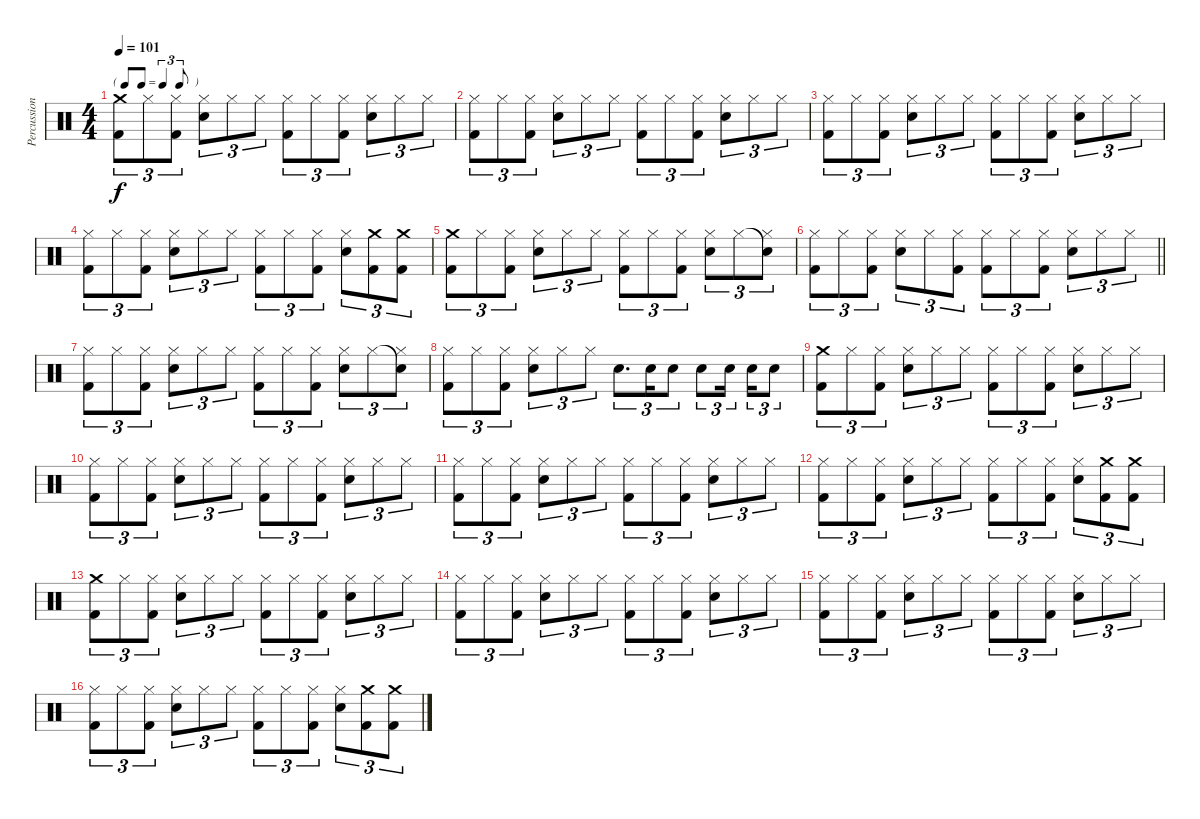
\track ("Percussion" "Percussion") {instrument percussion}
\staff {score}
\articulation defaults
\ts (4 4)
\tf triplet8th
\tempo 101
\clef neutral
\ks c
("Crash medium (hit)" "Kick (hit) 2").8{tu (3 2) dy f} "Hi-Hat (closed)".8{tu (3 2)} ("Hi-Hat (closed)" "Kick (hit) 2").8{tu (3 2)} ("Hi-Hat (closed)" "Electric Snare (hit)").8{tu (3 2)} "Hi-Hat (closed)".8{tu (3 2)} "Hi-Hat (closed)".8{tu (3 2)} ("Hi-Hat (closed)" "Kick (hit) 2").8{tu (3 2)} "Hi-Hat (closed)".8{tu (3 2)} ("Hi-Hat (closed)" "Kick (hit) 2").8{tu (3 2)} ("Hi-Hat (closed)" "Electric Snare (hit)").8{tu (3 2)} "Hi-Hat (closed)".8{tu (3 2)} "Hi-Hat (closed)".8{tu (3 2)} |
("Hi-Hat (closed)" "Kick (hit) 2").8{tu (3 2)} "Hi-Hat (closed)".8{tu (3 2)} ("Hi-Hat (closed)" "Kick (hit) 2").8{tu (3 2)} ("Hi-Hat (closed)" "Electric Snare (hit)").8{tu (3 2)} "Hi-Hat (closed)".8{tu (3 2)} "Hi-Hat (closed)".8{tu (3 2)} ("Hi-Hat (closed)" "Kick (hit) 2").8{tu (3 2)} "Hi-Hat (closed)".8{tu (3 2)} ("Hi-Hat (closed)" "Kick (hit) 2").8{tu (3 2)} ("Hi-Hat (closed)" "Electric Snare (hit)").8{tu (3 2)} "Hi-Hat (closed)".8{tu (3 2)} "Hi-Hat (closed)".8{tu (3 2)} |
("Hi-Hat (closed)" "Kick (hit) 2").8{tu (3 2)} "Hi-Hat (closed)".8{tu (3 2)} ("Hi-Hat (closed)" "Kick (hit) 2").8{tu (3 2)} ("Hi-Hat (closed)" "Electric Snare (hit)").8{tu (3 2)} "Hi-Hat (closed)".8{tu (3 2)} "Hi-Hat (closed)".8{tu (3 2)} ("Hi-Hat (closed)" "Kick (hit) 2").8{tu (3 2)} "Hi-Hat (closed)".8{tu (3 2)} ("Hi-Hat (closed)" "Kick (hit) 2").8{tu (3 2)} ("Hi-Hat (closed)" "Electric Snare (hit)").8{tu (3 2)} "Hi-Hat (closed)".8{tu (3 2)} "Hi-Hat (closed)".8{tu (3 2)} |
("Hi-Hat (closed)" "Kick (hit) 2").8{tu (3 2)} "Hi-Hat (closed)".8{tu (3 2)} ("Hi-Hat (closed)" "Kick (hit) 2").8{tu (3 2)} ("Hi-Hat (closed)" "Electric Snare (hit)").8{tu (3 2)} "Hi-Hat (closed)".8{tu (3 2)} "Hi-Hat (closed)".8{tu (3 2)} ("Hi-Hat (closed)" "Kick (hit) 2").8{tu (3 2)} "Hi-Hat (closed)".8{tu (3 2)} ("Hi-Hat (closed)" "Kick (hit) 2").8{tu (3 2)} ("Hi-Hat (closed)" "Electric Snare (hit)").8{tu (3 2)} ("Crash medium (hit)" "Kick (hit) 2").8{tu (3 2)} ("Crash medium (hit)" "Kick (hit) 2").8{tu (3 2)} |
("Crash medium (hit)" "Kick (hit) 2").8{tu (3 2)} "Hi-Hat (closed)".8{tu (3 2)} ("Hi-Hat (closed)" "Kick (hit) 2").8{tu (3 2)} ("Hi-Hat (closed)" "Electric Snare (hit)").8{tu (3 2)} "Hi-Hat (closed)".8{tu (3 2)} "Hi-Hat (closed)".8{tu (3 2)} ("Hi-Hat (closed)" "Kick (hit) 2").8{tu (3 2)} "Hi-Hat (closed)".8{tu (3 2)} ("Hi-Hat (closed)" "Kick (hit) 2").8{tu (3 2)} ("Hi-Hat (closed)" "Electric Snare (hit)").8{tu (3 2)} "Hi-Hat (closed)".8{tu (3 2)} ("Snare (hit)"{t} "Hi-Hat (closed)").8{tu (3 2)} |
\barLineRight lightlight
("Hi-Hat (closed)" "Kick (hit) 2").8{tu (3 2)} "Hi-Hat (closed)".8{tu (3 2)} ("Hi-Hat (closed)" "Kick (hit) 2").8{tu (3 2)} ("Hi-Hat (closed)" "Electric Snare (hit)").8{tu (3 2)} "Hi-Hat (closed)".8{tu (3 2)} ("Hi-Hat (closed)" "Kick (hit) 2").8{tu (3 2)} ("Hi-Hat (closed)" "Kick (hit) 2").8{tu (3 2)} "Hi-Hat (closed)".8{tu (3 2)} ("Hi-Hat (closed)" "Kick (hit) 2").8{tu (3 2)} ("Hi-Hat (closed)" "Electric Snare (hit)").8{tu (3 2)} "Hi-Hat (closed)".8{tu (3 2)} "Hi-Hat (closed)".8{tu (3 2)} |
("Hi-Hat (closed)" "Kick (hit) 2").8{tu (3 2)} "Hi-Hat (closed)".8{tu (3 2)} ("Hi-Hat (closed)" "Kick (hit) 2").8{tu (3 2)} ("Hi-Hat (closed)" "Electric Snare (hit)").8{tu (3 2)} "Hi-Hat (closed)".8{tu (3 2)} "Hi-Hat (closed)".8{tu (3 2)} ("Hi-Hat (closed)" "Kick (hit) 2").8{tu (3 2)} "Hi-Hat (closed)".8{tu (3 2)} ("Hi-Hat (closed)" "Kick (hit) 2").8{tu (3 2)} ("Hi-Hat (closed)" "Electric Snare (hit)").8{tu (3 2)} "Hi-Hat (closed)".8{tu (3 2)} ("Snare (hit)"{t} "Hi-Hat (closed)").8{tu (3 2)} |
("Hi-Hat (closed)" "Kick (hit) 2").8{tu (3 2)} "Hi-Hat (closed)".8{tu (3 2)} ("Hi-Hat (closed)" "Kick (hit) 2").8{tu (3 2)} ("Hi-Hat (closed)" "Electric Snare (hit)").8{tu (3 2)} "Hi-Hat (closed)".8{tu (3 2)} "Hi-Hat (closed)".8{tu (3 2)} "Electric Snare (hit)".8{d tu (3 2)} "Electric Snare (hit)".16{tu (3 2)} "Electric Snare (hit)".8{tu (3 2)} "Electric Snare (hit)".8{tu (3 2)} "Electric Snare (hit)".16{tu (3 2) beam splitsecondary} "Electric Snare (hit)".16{tu (3 2)} "Electric Snare (hit)".8{tu (3 2)} |
("Crash medium (hit)" "Kick (hit) 2").8{tu (3 2)} "Hi-Hat (closed)".8{tu (3 2)} ("Hi-Hat (closed)" "Kick (hit) 2").8{tu (3 2)} ("Hi-Hat (closed)" "Electric Snare (hit)").8{tu (3 2)} "Hi-Hat (closed)".8{tu (3 2)} "Hi-Hat (closed)".8{tu (3 2)} ("Hi-Hat (closed)" "Kick (hit) 2").8{tu (3 2)} "Hi-Hat (closed)".8{tu (3 2)} ("Hi-Hat (closed)" "Kick (hit) 2").8{tu (3 2)} ("Hi-Hat (closed)" "Electric Snare (hit)").8{tu (3 2)} "Hi-Hat (closed)".8{tu (3 2)} "Hi-Hat (closed)".8{tu (3 2)} |
("Hi-Hat (closed)" "Kick (hit) 2").8{tu (3 2)} "Hi-Hat (closed)".8{tu (3 2)} ("Hi-Hat (closed)" "Kick (hit) 2").8{tu (3 2)} ("Hi-Hat (closed)" "Electric Snare (hit)").8{tu (3 2)} "Hi-Hat (closed)".8{tu (3 2)} "Hi-Hat (closed)".8{tu (3 2)} ("Hi-Hat (closed)" "Kick (hit) 2").8{tu (3 2)} "Hi-Hat (closed)".8{tu (3 2)} ("Hi-Hat (closed)" "Kick (hit) 2").8{tu (3 2)} ("Hi-Hat (closed)" "Electric Snare (hit)").8{tu (3 2)} "Hi-Hat (closed)".8{tu (3 2)} "Hi-Hat (closed)".8{tu (3 2)} |
("Hi-Hat (closed)" "Kick (hit) 2").8{tu (3 2)} "Hi-Hat (closed)".8{tu (3 2)} ("Hi-Hat (closed)" "Kick (hit) 2").8{tu (3 2)} ("Hi-Hat (closed)" "Electric Snare (hit)").8{tu (3 2)} "Hi-Hat (closed)".8{tu (3 2)} "Hi-Hat (closed)".8{tu (3 2)} ("Hi-Hat (closed)" "Kick (hit) 2").8{tu (3 2)} "Hi-Hat (closed)".8{tu (3 2)} ("Hi-Hat (closed)" "Kick (hit) 2").8{tu (3 2)} ("Hi-Hat (closed)" "Electric Snare (hit)").8{tu (3 2)} "Hi-Hat (closed)".8{tu (3 2)} "Hi-Hat (closed)".8{tu (3 2)} |
("Hi-Hat (closed)" "Kick (hit) 2").8{tu (3 2)} "Hi-Hat (closed)".8{tu (3 2)} ("Hi-Hat (closed)" "Kick (hit) 2").8{tu (3 2)} ("Hi-Hat (closed)" "Electric Snare (hit)").8{tu (3 2)} "Hi-Hat (closed)".8{tu (3 2)} "Hi-Hat (closed)".8{tu (3 2)} ("Hi-Hat (closed)" "Kick (hit) 2").8{tu (3 2)} "Hi-Hat (closed)".8{tu (3 2)} ("Hi-Hat (closed)" "Kick (hit) 2").8{tu (3 2)} ("Hi-Hat (closed)" "Electric Snare (hit)").8{tu (3 2)} ("Crash medium (hit)" "Kick (hit) 2").8{tu (3 2)} ("Crash medium (hit)" "Kick (hit) 2").8{tu (3 2)} |
("Crash medium (hit)" "Kick (hit) 2").8{tu (3 2)} "Hi-Hat (closed)".8{tu (3 2)} ("Hi-Hat (closed)" "Kick (hit) 2").8{tu (3 2)} ("Hi-Hat (closed)" "Electric Snare (hit)").8{tu (3 2)} "Hi-Hat (closed)".8{tu (3 2)} "Hi-Hat (closed)".8{tu (3 2)} ("Hi-Hat (closed)" "Kick (hit) 2").8{tu (3 2)} "Hi-Hat (closed)".8{tu (3 2)} ("Hi-Hat (closed)" "Kick (hit) 2").8{tu (3 2)} ("Hi-Hat (closed)" "Electric Snare (hit)").8{tu (3 2)} "Hi-Hat (closed)".8{tu (3 2)} "Hi-Hat (closed)".8{tu (3 2)} |
("Hi-Hat (closed)" "Kick (hit) 2").8{tu (3 2)} "Hi-Hat (closed)".8{tu (3 2)} ("Hi-Hat (closed)" "Kick (hit) 2").8{tu (3 2)} ("Hi-Hat (closed)" "Electric Snare (hit)").8{tu (3 2)} "Hi-Hat (closed)".8{tu (3 2)} "Hi-Hat (closed)".8{tu (3 2)} ("Hi-Hat (closed)" "Kick (hit) 2").8{tu (3 2)} "Hi-Hat (closed)".8{tu (3 2)} ("Hi-Hat (closed)" "Kick (hit) 2").8{tu (3 2)} ("Hi-Hat (closed)" "Electric Snare (hit)").8{tu (3 2)} "Hi-Hat (closed)".8{tu (3 2)} "Hi-Hat (closed)".8{tu (3 2)} |
("Hi-Hat (closed)" "Kick (hit) 2").8{tu (3 2)} "Hi-Hat (closed)".8{tu (3 2)} ("Hi-Hat (closed)" "Kick (hit) 2").8{tu (3 2)} ("Hi-Hat (closed)" "Electric Snare (hit)").8{tu (3 2)} "Hi-Hat (closed)".8{tu (3 2)} "Hi-Hat (closed)".8{tu (3 2)} ("Hi-Hat (closed)" "Kick (hit) 2").8{tu (3 2)} "Hi-Hat (closed)".8{tu (3 2)} ("Hi-Hat (closed)" "Kick (hit) 2").8{tu (3 2)} ("Hi-Hat (closed)" "Electric Snare (hit)").8{tu (3 2)} "Hi-Hat (closed)".8{tu (3 2)} "Hi-Hat (closed)".8{tu (3 2)} |
("Hi-Hat (closed)" "Kick (hit) 2").8{tu (3 2)} "Hi-Hat (closed)".8{tu (3 2)} ("Hi-Hat (closed)" "Kick (hit) 2").8{tu (3 2)} ("Hi-Hat (closed)" "Electric Snare (hit)").8{tu (3 2)} "Hi-Hat (closed)".8{tu (3 2)} "Hi-Hat (closed)".8{tu (3 2)} ("Hi-Hat (closed)" "Kick (hit) 2").8{tu (3 2)} "Hi-Hat (closed)".8{tu (3 2)} ("Hi-Hat (closed)" "Kick (hit) 2").8{tu (3 2)} ("Hi-Hat (closed)" "Electric Snare (hit)").8{tu (3 2)} ("Crash medium (hit)" "Kick (hit) 2").8{tu (3 2)} ("Crash medium (hit)" "Kick (hit) 2").8{tu (3 2)}
